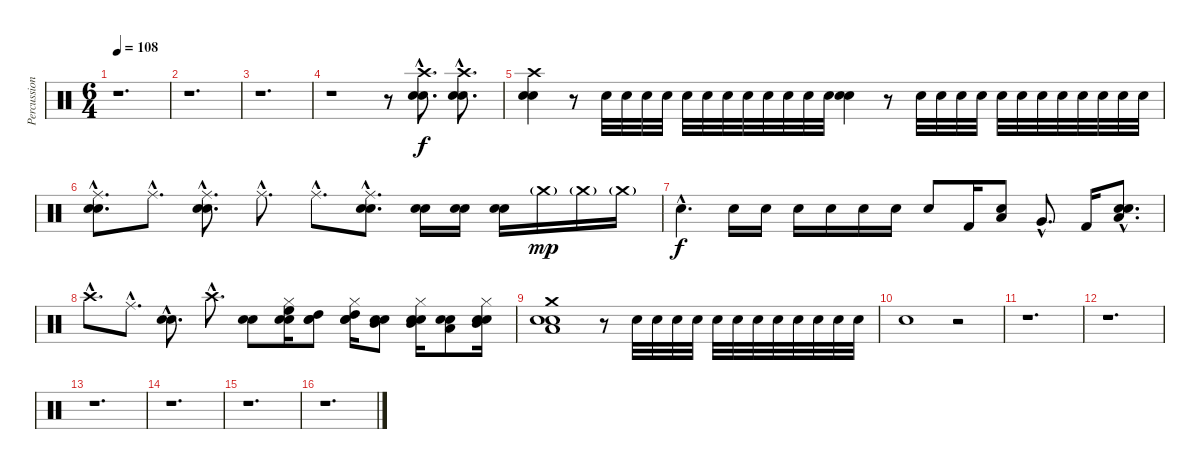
\track ("Percussion" "Percussion") {instrument percussion}
\staff {score}
\articulation defaults
\ts (6 4)
\tempo 108
\clef neutral
\ks c
r.1{d dy f} |
r.1{d} |
r.1{d} |
r.1 r.8 ("Crash high (hit)"{hac} "Snare (hit) 2"{hac} "Electric Snare (hit)"{hac}).8{d} ("Crash high (hit)"{hac} "Snare (hit) 2"{hac} "Electric Snare (hit)"{hac}).8{d} |
("Crash high (hit)" "Snare (hit) 2" "Electric Snare (hit)").4 r.8{volume 0} "Electric Snare (hit)".32{volume 8} "Electric Snare (hit)".32 "Electric Snare (hit)".32 "Electric Snare (hit)".32 "Electric Snare (hit)".32 "Electric Snare (hit)".32 "Electric Snare (hit)".32 "Electric Snare (hit)".32 "Electric Snare (hit)".32 "Electric Snare (hit)".32 "Electric Snare (hit)".32 "Electric Snare (hit)".32 ("Snare (hit) 2" "Electric Snare (hit)").4 r.8{volume 0} "Electric Snare (hit)".32{volume 8} "Electric Snare (hit)".32 "Electric Snare (hit)".32 "Electric Snare (hit)".32 "Electric Snare (hit)".32 "Electric Snare (hit)".32 "Electric Snare (hit)".32 "Electric Snare (hit)".32 "Electric Snare (hit)".32 "Electric Snare (hit)".32 "Electric Snare (hit)".32 "Electric Snare (hit)".32 |
("Ride (middle)"{hac} "Snare (hit) 2"{hac} "Electric Snare (hit)"{hac}).8{d} "Ride (middle)"{hac}.8{d} ("Ride (middle)"{hac} "Snare (hit) 2"{hac} "Electric Snare (hit)"{hac}).8{d} "Ride (middle)"{hac}.8{d} "Ride (middle)"{hac}.8{d} ("Ride (middle)"{hac} "Snare (hit) 2"{hac} "Electric Snare (hit)"{hac}).8{d} ("Snare (hit) 2" "Electric Snare (hit)").16 ("Snare (hit) 2" "Electric Snare (hit)").16 ("Snare (hit) 2" "Electric Snare (hit)").16 "Crash medium (hit)"{g}.16{dy mp} "Crash medium (hit)"{g}.16 "Crash medium (hit)"{g}.16 |
"Snare (hit) 2"{hac}.4{d dy f} "Snare (hit) 2".16 "Snare (hit) 2".16 "Snare (hit) 2".16 "Snare (hit) 2".16 "Snare (hit) 2".16 "Snare (hit) 2".16 "Snare (hit) 2".8 "Kick (hit) 2".16 ("Low Tom (hit)" "Electric Snare (hit)").8 "Very Low Tom (hit)"{hac}.8{d} "Kick (hit) 2".16 ("Low Floor Tom (hit)"{hac} "Snare (hit) 2"{hac} "Electric Snare (hit)"{hac}).8{d} |
"Crash high (hit)"{hac}.8{d} "Ride (middle)"{hac}.8{d} ("Snare (hit) 2"{hac} "Electric Snare (hit)"{hac}).8{d} "Crash high (hit)"{hac}.8{d} ("Snare (hit) 2" "Electric Snare (hit)").8 ("Hi-Hat (closed)" "High Floor Tom (hit)" "Snare (hit) 2" "Electric Snare (hit)").16 ("High Tom (hit)" "Snare (hit) 2" "Electric Snare (hit)").8 ("Hi-Hat (closed)" "High Tom (hit)" "Snare (hit) 2" "Electric Snare (hit)").16 ("Mid Tom (hit)" "Snare (hit) 2" "Electric Snare (hit)").8 ("Hi-Hat (closed)" "Mid Tom (hit)" "Snare (hit) 2" "Electric Snare (hit)").16 ("Low Tom (hit)" "Snare (hit) 2" "Electric Snare (hit)").8 ("Hi-Hat (closed)" "Mid Tom (hit)" "Snare (hit) 2" "Electric Snare (hit)").16 |
("Crash medium (hit)" "Low Tom (hit)" "Snare (hit) 2" "Electric Snare (hit)").1 r.8{volume 0} "Electric Snare (hit)".32{volume 8} "Electric Snare (hit)".32 "Electric Snare (hit)".32 "Electric Snare (hit)".32 "Electric Snare (hit)".32 "Electric Snare (hit)".32 "Electric Snare (hit)".32 "Electric Snare (hit)".32 "Electric Snare (hit)".32 "Electric Snare (hit)".32 "Electric Snare (hit)".32 "Electric Snare (hit)".32 |
"Electric Snare (hit)".1 r.2 |
r.1{d} |
r.1{d} |
r.1{d} |
r.1{d} |
r.1{d} |
r.1{d}
